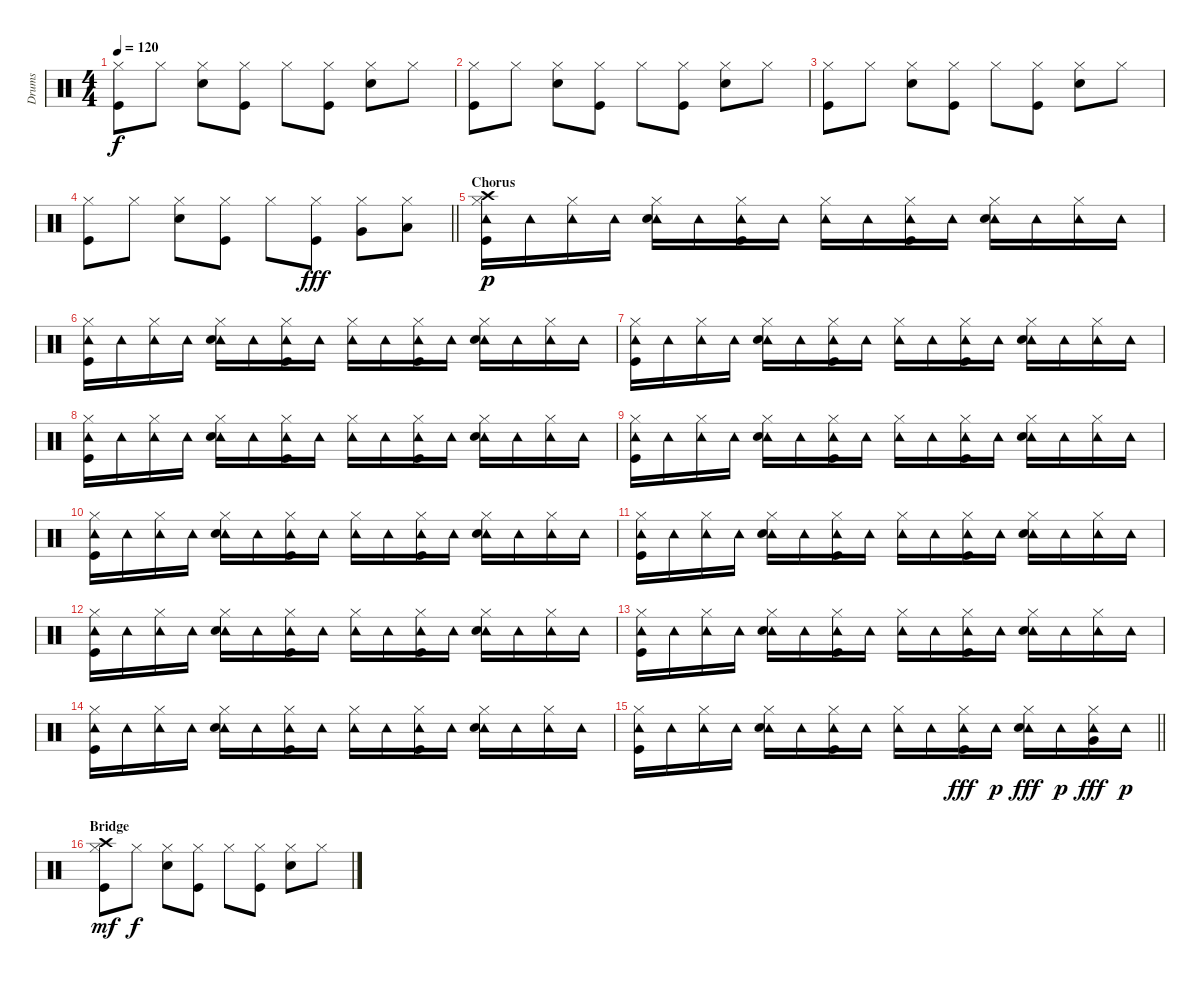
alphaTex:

\track ("Drums" "Drums") {instrument percussion}
\staff {score}
\articulation defaults
\ts (4 4)
\tempo 120
\clef neutral
\ks c
("Hi-Hat (closed)" "Kick (hit)").8{dy f} "Hi-Hat (closed)".8 ("Hi-Hat (closed)" "Snare (hit) 2").8 ("Hi-Hat (closed)" "Kick (hit)").8 "Hi-Hat (closed)".8 ("Hi-Hat (closed)" "Kick (hit)").8 ("Hi-Hat (closed)" "Snare (hit) 2").8 "Hi-Hat (closed)".8 |
("Hi-Hat (closed)" "Kick (hit)").8 "Hi-Hat (closed)".8 ("Hi-Hat (closed)" "Snare (hit) 2").8 ("Hi-Hat (closed)" "Kick (hit)").8 "Hi-Hat (closed)".8 ("Hi-Hat (closed)" "Kick (hit)").8 ("Hi-Hat (closed)" "Snare (hit) 2").8 "Hi-Hat (closed)".8 |
("Hi-Hat (closed)" "Kick (hit)").8 "Hi-Hat (closed)".8 ("Hi-Hat (closed)" "Snare (hit) 2").8 ("Hi-Hat (closed)" "Kick (hit)").8 "Hi-Hat (closed)".8 ("Hi-Hat (closed)" "Kick (hit)").8 ("Hi-Hat (closed)" "Snare (hit) 2").8 "Hi-Hat (closed)".8 |
\barLineRight lightlight
("Hi-Hat (closed)" "Kick (hit)").8 "Hi-Hat (closed)".8 ("Hi-Hat (closed)" "Snare (hit) 2").8 ("Hi-Hat (closed)" "Kick (hit)").8 "Hi-Hat (closed)".8 ("Hi-Hat (closed)" "Kick (hit)").8{dy fff} ("Hi-Hat (closed)" "Very Low Tom (hit)").8 ("Hi-Hat (closed)" "Low Floor Tom (hit)").8 |
\section ("" "Chorus")
("Crash high (hit)" "Tambourine (hit)" "Hi-Hat (closed)" "Kick (hit)").16{dy p} "Tambourine (hit)".16 ("Tambourine (hit)" "Hi-Hat (closed)").16 "Tambourine (hit)".16 ("Tambourine (hit)" "Hi-Hat (closed)" "Snare (hit) 2").16 "Tambourine (hit)".16 ("Tambourine (hit)" "Hi-Hat (closed)" "Kick (hit)").16 "Tambourine (hit)".16 ("Tambourine (hit)" "Hi-Hat (closed)").16 "Tambourine (hit)".16 ("Tambourine (hit)" "Hi-Hat (closed)" "Kick (hit)").16 "Tambourine (hit)".16 ("Tambourine (hit)" "Hi-Hat (closed)" "Snare (hit) 2").16 "Tambourine (hit)".16 ("Tambourine (hit)" "Hi-Hat (closed)").16 "Tambourine (hit)".16 |
("Tambourine (hit)" "Hi-Hat (closed)" "Kick (hit)").16 "Tambourine (hit)".16 ("Tambourine (hit)" "Hi-Hat (closed)").16 "Tambourine (hit)".16 ("Tambourine (hit)" "Hi-Hat (closed)" "Snare (hit) 2").16 "Tambourine (hit)".16 ("Tambourine (hit)" "Hi-Hat (closed)" "Kick (hit)").16 "Tambourine (hit)".16 ("Tambourine (hit)" "Hi-Hat (closed)").16 "Tambourine (hit)".16 ("Tambourine (hit)" "Hi-Hat (closed)" "Kick (hit)").16 "Tambourine (hit)".16 ("Tambourine (hit)" "Hi-Hat (closed)" "Snare (hit) 2").16 "Tambourine (hit)".16 ("Tambourine (hit)" "Hi-Hat (closed)").16 "Tambourine (hit)".16 |
("Tambourine (hit)" "Hi-Hat (closed)" "Kick (hit)").16 "Tambourine (hit)".16 ("Tambourine (hit)" "Hi-Hat (closed)").16 "Tambourine (hit)".16 ("Tambourine (hit)" "Hi-Hat (closed)" "Snare (hit) 2").16 "Tambourine (hit)".16 ("Tambourine (hit)" "Hi-Hat (closed)" "Kick (hit)").16 "Tambourine (hit)".16 ("Tambourine (hit)" "Hi-Hat (closed)").16 "Tambourine (hit)".16 ("Tambourine (hit)" "Hi-Hat (closed)" "Kick (hit)").16 "Tambourine (hit)".16 ("Tambourine (hit)" "Hi-Hat (closed)" "Snare (hit) 2").16 "Tambourine (hit)".16 ("Tambourine (hit)" "Hi-Hat (closed)").16 "Tambourine (hit)".16 |
("Tambourine (hit)" "Hi-Hat (closed)" "Kick (hit)").16 "Tambourine (hit)".16 ("Tambourine (hit)" "Hi-Hat (closed)").16 "Tambourine (hit)".16 ("Tambourine (hit)" "Hi-Hat (closed)" "Snare (hit) 2").16 "Tambourine (hit)".16 ("Tambourine (hit)" "Hi-Hat (closed)" "Kick (hit)").16 "Tambourine (hit)".16 ("Tambourine (hit)" "Hi-Hat (closed)").16 "Tambourine (hit)".16 ("Tambourine (hit)" "Hi-Hat (closed)" "Kick (hit)").16 "Tambourine (hit)".16 ("Tambourine (hit)" "Hi-Hat (closed)" "Snare (hit) 2").16 "Tambourine (hit)".16 ("Tambourine (hit)" "Hi-Hat (closed)").16 "Tambourine (hit)".16 |
("Tambourine (hit)" "Hi-Hat (closed)" "Kick (hit)").16 "Tambourine (hit)".16 ("Tambourine (hit)" "Hi-Hat (closed)").16 "Tambourine (hit)".16 ("Tambourine (hit)" "Hi-Hat (closed)" "Snare (hit) 2").16 "Tambourine (hit)".16 ("Tambourine (hit)" "Hi-Hat (closed)" "Kick (hit)").16 "Tambourine (hit)".16 ("Tambourine (hit)" "Hi-Hat (closed)").16 "Tambourine (hit)".16 ("Tambourine (hit)" "Hi-Hat (closed)" "Kick (hit)").16 "Tambourine (hit)".16 ("Tambourine (hit)" "Hi-Hat (closed)" "Snare (hit) 2").16 "Tambourine (hit)".16 ("Tambourine (hit)" "Hi-Hat (closed)").16 "Tambourine (hit)".16 |
("Tambourine (hit)" "Hi-Hat (closed)" "Kick (hit)").16 "Tambourine (hit)".16 ("Tambourine (hit)" "Hi-Hat (closed)").16 "Tambourine (hit)".16 ("Tambourine (hit)" "Hi-Hat (closed)" "Snare (hit) 2").16 "Tambourine (hit)".16 ("Tambourine (hit)" "Hi-Hat (closed)" "Kick (hit)").16 "Tambourine (hit)".16 ("Tambourine (hit)" "Hi-Hat (closed)").16 "Tambourine (hit)".16 ("Tambourine (hit)" "Hi-Hat (closed)" "Kick (hit)").16 "Tambourine (hit)".16 ("Tambourine (hit)" "Hi-Hat (closed)" "Snare (hit) 2").16 "Tambourine (hit)".16 ("Tambourine (hit)" "Hi-Hat (closed)").16 "Tambourine (hit)".16 |
("Tambourine (hit)" "Hi-Hat (closed)" "Kick (hit)").16 "Tambourine (hit)".16 ("Tambourine (hit)" "Hi-Hat (closed)").16 "Tambourine (hit)".16 ("Tambourine (hit)" "Hi-Hat (closed)" "Snare (hit) 2").16 "Tambourine (hit)".16 ("Tambourine (hit)" "Hi-Hat (closed)" "Kick (hit)").16 "Tambourine (hit)".16 ("Tambourine (hit)" "Hi-Hat (closed)").16 "Tambourine (hit)".16 ("Tambourine (hit)" "Hi-Hat (closed)" "Kick (hit)").16 "Tambourine (hit)".16 ("Tambourine (hit)" "Hi-Hat (closed)" "Snare (hit) 2").16 "Tambourine (hit)".16 ("Tambourine (hit)" "Hi-Hat (closed)").16 "Tambourine (hit)".16 |
("Tambourine (hit)" "Hi-Hat (closed)" "Kick (hit)").16 "Tambourine (hit)".16 ("Tambourine (hit)" "Hi-Hat (closed)").16 "Tambourine (hit)".16 ("Tambourine (hit)" "Hi-Hat (closed)" "Snare (hit) 2").16 "Tambourine (hit)".16 ("Tambourine (hit)" "Hi-Hat (closed)" "Kick (hit)").16 "Tambourine (hit)".16 ("Tambourine (hit)" "Hi-Hat (closed)").16 "Tambourine (hit)".16 ("Tambourine (hit)" "Hi-Hat (closed)" "Kick (hit)").16 "Tambourine (hit)".16 ("Tambourine (hit)" "Hi-Hat (closed)" "Snare (hit) 2").16 "Tambourine (hit)".16 ("Tambourine (hit)" "Hi-Hat (closed)").16 "Tambourine (hit)".16 |
("Tambourine (hit)" "Hi-Hat (closed)" "Kick (hit)").16 "Tambourine (hit)".16 ("Tambourine (hit)" "Hi-Hat (closed)").16 "Tambourine (hit)".16 ("Tambourine (hit)" "Hi-Hat (closed)" "Snare (hit) 2").16 "Tambourine (hit)".16 ("Tambourine (hit)" "Hi-Hat (closed)" "Kick (hit)").16 "Tambourine (hit)".16 ("Tambourine (hit)" "Hi-Hat (closed)").16 "Tambourine (hit)".16 ("Tambourine (hit)" "Hi-Hat (closed)" "Kick (hit)").16 "Tambourine (hit)".16 ("Tambourine (hit)" "Hi-Hat (closed)" "Snare (hit) 2").16 "Tambourine (hit)".16 ("Tambourine (hit)" "Hi-Hat (closed)").16 "Tambourine (hit)".16 |
("Tambourine (hit)" "Hi-Hat (closed)" "Kick (hit)").16 "Tambourine (hit)".16 ("Tambourine (hit)" "Hi-Hat (closed)").16 "Tambourine (hit)".16 ("Tambourine (hit)" "Hi-Hat (closed)" "Snare (hit) 2").16 "Tambourine (hit)".16 ("Tambourine (hit)" "Hi-Hat (closed)" "Kick (hit)").16 "Tambourine (hit)".16 ("Tambourine (hit)" "Hi-Hat (closed)").16 "Tambourine (hit)".16 ("Tambourine (hit)" "Hi-Hat (closed)" "Kick (hit)").16 "Tambourine (hit)".16 ("Tambourine (hit)" "Hi-Hat (closed)" "Snare (hit) 2").16 "Tambourine (hit)".16 ("Tambourine (hit)" "Hi-Hat (closed)").16 "Tambourine (hit)".16 |
\barLineRight lightlight
("Tambourine (hit)" "Hi-Hat (closed)" "Kick (hit)").16 "Tambourine (hit)".16 ("Tambourine (hit)" "Hi-Hat (closed)").16 "Tambourine (hit)".16 ("Tambourine (hit)" "Hi-Hat (closed)" "Snare (hit) 2").16 "Tambourine (hit)".16 ("Tambourine (hit)" "Hi-Hat (closed)" "Kick (hit)").16 "Tambourine (hit)".16 ("Tambourine (hit)" "Hi-Hat (closed)").16 "Tambourine (hit)".16 ("Tambourine (hit)" "Hi-Hat (closed)" "Kick (hit)").16{dy fff} "Tambourine (hit)".16{dy p} ("Tambourine (hit)" "Hi-Hat (closed)" "Snare (hit) 2").16{dy fff} "Tambourine (hit)".16{dy p} ("Tambourine (hit)" "Hi-Hat (closed)" "Very Low Tom (hit)").16{dy fff} "Tambourine (hit)".16{dy p} |
\section ("" "Bridge")
("Crash high (hit)" "Hi-Hat (closed)" "Kick (hit)").8{dy mf} "Hi-Hat (closed)".8{dy f} ("Hi-Hat (closed)" "Snare (hit) 2").8 ("Hi-Hat (closed)" "Kick (hit)").8 "Hi-Hat (closed)".8 ("Hi-Hat (closed)" "Kick (hit)").8 ("Hi-Hat (closed)" "Snare (hit) 2").8 "Hi-Hat (closed)".8
